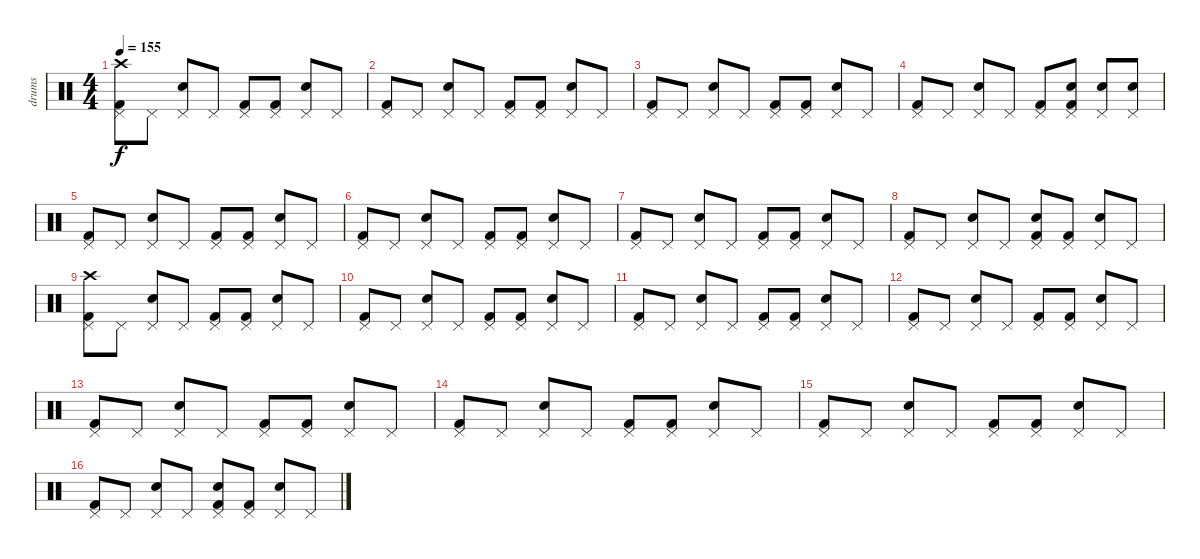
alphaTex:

\track ("drums" "drums") {instrument percussion}
\staff {score}
\articulation defaults
\ts (4 4)
\tempo 155
\clef neutral
\ks c
("Kick (hit) 2" "Pedal Hi-Hat (hit)" "Crash high (hit)").8{dy f} "Pedal Hi-Hat (hit)".8 ("Electric Snare (hit)" "Pedal Hi-Hat (hit)").8 "Pedal Hi-Hat (hit)".8 ("Kick (hit) 2" "Pedal Hi-Hat (hit)").8 ("Kick (hit) 2" "Pedal Hi-Hat (hit)").8 ("Electric Snare (hit)" "Pedal Hi-Hat (hit)").8 "Pedal Hi-Hat (hit)".8 |
("Kick (hit) 2" "Pedal Hi-Hat (hit)").8 "Pedal Hi-Hat (hit)".8 ("Electric Snare (hit)" "Pedal Hi-Hat (hit)").8 "Pedal Hi-Hat (hit)".8 ("Kick (hit) 2" "Pedal Hi-Hat (hit)").8 ("Kick (hit) 2" "Pedal Hi-Hat (hit)").8 ("Electric Snare (hit)" "Pedal Hi-Hat (hit)").8 "Pedal Hi-Hat (hit)".8 |
("Kick (hit) 2" "Pedal Hi-Hat (hit)").8 "Pedal Hi-Hat (hit)".8 ("Electric Snare (hit)" "Pedal Hi-Hat (hit)").8 "Pedal Hi-Hat (hit)".8 ("Kick (hit) 2" "Pedal Hi-Hat (hit)").8 ("Kick (hit) 2" "Pedal Hi-Hat (hit)").8 ("Electric Snare (hit)" "Pedal Hi-Hat (hit)").8 "Pedal Hi-Hat (hit)".8 |
("Kick (hit) 2" "Pedal Hi-Hat (hit)").8 "Pedal Hi-Hat (hit)".8 ("Electric Snare (hit)" "Pedal Hi-Hat (hit)").8 "Pedal Hi-Hat (hit)".8 ("Kick (hit) 2" "Pedal Hi-Hat (hit)").8 ("Kick (hit) 2" "Electric Snare (hit)" "Pedal Hi-Hat (hit)").8 ("Electric Snare (hit)" "Pedal Hi-Hat (hit)").8 ("Electric Snare (hit)" "Pedal Hi-Hat (hit)").8 |
("Kick (hit) 2" "Pedal Hi-Hat (hit)").8 "Pedal Hi-Hat (hit)".8 ("Electric Snare (hit)" "Pedal Hi-Hat (hit)").8 "Pedal Hi-Hat (hit)".8 ("Kick (hit) 2" "Pedal Hi-Hat (hit)").8 ("Kick (hit) 2" "Pedal Hi-Hat (hit)").8 ("Electric Snare (hit)" "Pedal Hi-Hat (hit)").8 "Pedal Hi-Hat (hit)".8 |
("Kick (hit) 2" "Pedal Hi-Hat (hit)").8 "Pedal Hi-Hat (hit)".8 ("Electric Snare (hit)" "Pedal Hi-Hat (hit)").8 "Pedal Hi-Hat (hit)".8 ("Kick (hit) 2" "Pedal Hi-Hat (hit)").8 ("Kick (hit) 2" "Pedal Hi-Hat (hit)").8 ("Electric Snare (hit)" "Pedal Hi-Hat (hit)").8 "Pedal Hi-Hat (hit)".8 |
("Kick (hit) 2" "Pedal Hi-Hat (hit)").8 "Pedal Hi-Hat (hit)".8 ("Electric Snare (hit)" "Pedal Hi-Hat (hit)").8 "Pedal Hi-Hat (hit)".8 ("Kick (hit) 2" "Pedal Hi-Hat (hit)").8 ("Kick (hit) 2" "Pedal Hi-Hat (hit)").8 ("Electric Snare (hit)" "Pedal Hi-Hat (hit)").8 "Pedal Hi-Hat (hit)".8 |
("Kick (hit) 2" "Pedal Hi-Hat (hit)").8 "Pedal Hi-Hat (hit)".8 ("Electric Snare (hit)" "Pedal Hi-Hat (hit)").8 "Pedal Hi-Hat (hit)".8 ("Kick (hit) 2" "Electric Snare (hit)" "Pedal Hi-Hat (hit)").8 ("Kick (hit) 2" "Pedal Hi-Hat (hit)").8 ("Electric Snare (hit)" "Pedal Hi-Hat (hit)").8 "Pedal Hi-Hat (hit)".8 |
("Kick (hit) 2" "Pedal Hi-Hat (hit)" "Crash high (hit)").8 "Pedal Hi-Hat (hit)".8 ("Electric Snare (hit)" "Pedal Hi-Hat (hit)").8 "Pedal Hi-Hat (hit)".8 ("Kick (hit) 2" "Pedal Hi-Hat (hit)").8 ("Kick (hit) 2" "Pedal Hi-Hat (hit)").8 ("Electric Snare (hit)" "Pedal Hi-Hat (hit)").8 "Pedal Hi-Hat (hit)".8 |
("Kick (hit) 2" "Pedal Hi-Hat (hit)").8 "Pedal Hi-Hat (hit)".8 ("Electric Snare (hit)" "Pedal Hi-Hat (hit)").8 "Pedal Hi-Hat (hit)".8 ("Kick (hit) 2" "Pedal Hi-Hat (hit)").8 ("Kick (hit) 2" "Pedal Hi-Hat (hit)").8 ("Electric Snare (hit)" "Pedal Hi-Hat (hit)").8 "Pedal Hi-Hat (hit)".8 |
("Kick (hit) 2" "Pedal Hi-Hat (hit)").8 "Pedal Hi-Hat (hit)".8 ("Electric Snare (hit)" "Pedal Hi-Hat (hit)").8 "Pedal Hi-Hat (hit)".8 ("Kick (hit) 2" "Pedal Hi-Hat (hit)").8 ("Kick (hit) 2" "Pedal Hi-Hat (hit)").8 ("Electric Snare (hit)" "Pedal Hi-Hat (hit)").8 "Pedal Hi-Hat (hit)".8 |
("Kick (hit) 2" "Pedal Hi-Hat (hit)").8 "Pedal Hi-Hat (hit)".8 ("Electric Snare (hit)" "Pedal Hi-Hat (hit)").8 "Pedal Hi-Hat (hit)".8 ("Kick (hit) 2" "Pedal Hi-Hat (hit)").8 ("Kick (hit) 2" "Pedal Hi-Hat (hit)").8 ("Electric Snare (hit)" "Pedal Hi-Hat (hit)").8 "Pedal Hi-Hat (hit)".8 |
("Kick (hit) 2" "Pedal Hi-Hat (hit)").8 "Pedal Hi-Hat (hit)".8 ("Electric Snare (hit)" "Pedal Hi-Hat (hit)").8 "Pedal Hi-Hat (hit)".8 ("Kick (hit) 2" "Pedal Hi-Hat (hit)").8 ("Kick (hit) 2" "Pedal Hi-Hat (hit)").8 ("Electric Snare (hit)" "Pedal Hi-Hat (hit)").8 "Pedal Hi-Hat (hit)".8 |
("Kick (hit) 2" "Pedal Hi-Hat (hit)").8 "Pedal Hi-Hat (hit)".8 ("Electric Snare (hit)" "Pedal Hi-Hat (hit)").8 "Pedal Hi-Hat (hit)".8 ("Kick (hit) 2" "Pedal Hi-Hat (hit)").8 ("Kick (hit) 2" "Pedal Hi-Hat (hit)").8 ("Electric Snare (hit)" "Pedal Hi-Hat (hit)").8 "Pedal Hi-Hat (hit)".8 |
("Kick (hit) 2" "Pedal Hi-Hat (hit)").8 "Pedal Hi-Hat (hit)".8 ("Electric Snare (hit)" "Pedal Hi-Hat (hit)").8 "Pedal Hi-Hat (hit)".8 ("Kick (hit) 2" "Pedal Hi-Hat (hit)").8 ("Kick (hit) 2" "Pedal Hi-Hat (hit)").8 ("Electric Snare (hit)" "Pedal Hi-Hat (hit)").8 "Pedal Hi-Hat (hit)".8 |
("Kick (hit) 2" "Pedal Hi-Hat (hit)").8 "Pedal Hi-Hat (hit)".8 ("Electric Snare (hit)" "Pedal Hi-Hat (hit)").8 "Pedal Hi-Hat (hit)".8 ("Kick (hit) 2" "Electric Snare (hit)" "Pedal Hi-Hat (hit)").8 ("Kick (hit) 2" "Pedal Hi-Hat (hit)").8 ("Electric Snare (hit)" "Pedal Hi-Hat (hit)").8 "Pedal Hi-Hat (hit)".8
